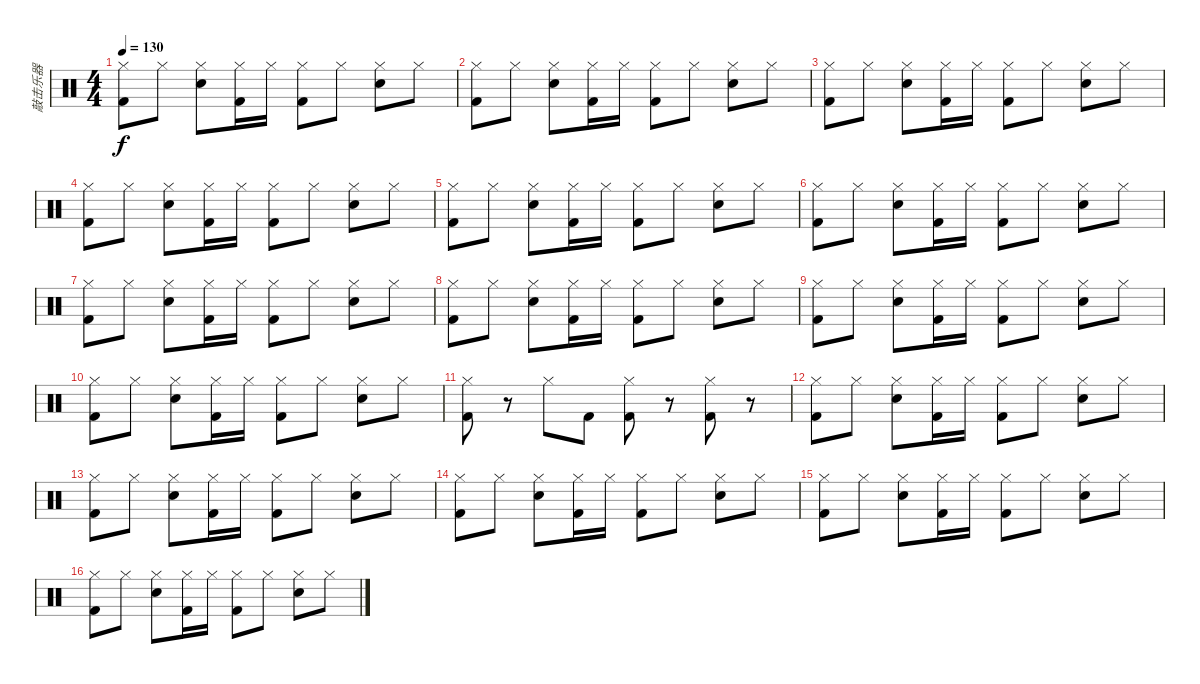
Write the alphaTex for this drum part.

\track ("敲击乐器" "敲击乐器") {instrument percussion}
\staff {score}
\articulation defaults
\ts (4 4)
\tempo 130
\clef neutral
\ks c
("Hi-Hat (closed)" "Kick (hit) 2").8{dy f} "Hi-Hat (closed)".8 ("Hi-Hat (closed)" "Snare (hit) 2").8 ("Hi-Hat (closed)" "Kick (hit) 2").16 "Hi-Hat (closed)".16 ("Hi-Hat (closed)" "Kick (hit) 2").8 "Hi-Hat (closed)".8 ("Hi-Hat (closed)" "Snare (hit) 2").8 "Hi-Hat (closed)".8 |
("Hi-Hat (closed)" "Kick (hit) 2").8 "Hi-Hat (closed)".8 ("Hi-Hat (closed)" "Snare (hit) 2").8 ("Hi-Hat (closed)" "Kick (hit) 2").16 "Hi-Hat (closed)".16 ("Hi-Hat (closed)" "Kick (hit) 2").8 "Hi-Hat (closed)".8 ("Hi-Hat (closed)" "Snare (hit) 2").8 "Hi-Hat (closed)".8 |
("Hi-Hat (closed)" "Kick (hit) 2").8 "Hi-Hat (closed)".8 ("Hi-Hat (closed)" "Snare (hit) 2").8 ("Hi-Hat (closed)" "Kick (hit) 2").16 "Hi-Hat (closed)".16 ("Hi-Hat (closed)" "Kick (hit) 2").8 "Hi-Hat (closed)".8 ("Hi-Hat (closed)" "Snare (hit) 2").8 "Hi-Hat (closed)".8 |
("Hi-Hat (closed)" "Kick (hit) 2").8 "Hi-Hat (closed)".8 ("Hi-Hat (closed)" "Snare (hit) 2").8 ("Hi-Hat (closed)" "Kick (hit) 2").16 "Hi-Hat (closed)".16 ("Hi-Hat (closed)" "Kick (hit) 2").8 "Hi-Hat (closed)".8 ("Hi-Hat (closed)" "Snare (hit) 2").8 "Hi-Hat (closed)".8 |
("Hi-Hat (closed)" "Kick (hit) 2").8 "Hi-Hat (closed)".8 ("Hi-Hat (closed)" "Snare (hit) 2").8 ("Hi-Hat (closed)" "Kick (hit) 2").16 "Hi-Hat (closed)".16 ("Hi-Hat (closed)" "Kick (hit) 2").8 "Hi-Hat (closed)".8 ("Hi-Hat (closed)" "Snare (hit) 2").8 "Hi-Hat (closed)".8 |
("Hi-Hat (closed)" "Kick (hit) 2").8 "Hi-Hat (closed)".8 ("Hi-Hat (closed)" "Snare (hit) 2").8 ("Hi-Hat (closed)" "Kick (hit) 2").16 "Hi-Hat (closed)".16 ("Hi-Hat (closed)" "Kick (hit) 2").8 "Hi-Hat (closed)".8 ("Hi-Hat (closed)" "Snare (hit) 2").8 "Hi-Hat (closed)".8 |
("Hi-Hat (closed)" "Kick (hit) 2").8 "Hi-Hat (closed)".8 ("Hi-Hat (closed)" "Snare (hit) 2").8 ("Hi-Hat (closed)" "Kick (hit) 2").16 "Hi-Hat (closed)".16 ("Hi-Hat (closed)" "Kick (hit) 2").8 "Hi-Hat (closed)".8 ("Hi-Hat (closed)" "Snare (hit) 2").8 "Hi-Hat (closed)".8 |
("Hi-Hat (closed)" "Kick (hit) 2").8 "Hi-Hat (closed)".8 ("Hi-Hat (closed)" "Snare (hit) 2").8 ("Hi-Hat (closed)" "Kick (hit) 2").16 "Hi-Hat (closed)".16 ("Hi-Hat (closed)" "Kick (hit) 2").8 "Hi-Hat (closed)".8 ("Hi-Hat (closed)" "Snare (hit) 2").8 "Hi-Hat (closed)".8 |
("Hi-Hat (closed)" "Kick (hit) 2").8 "Hi-Hat (closed)".8 ("Hi-Hat (closed)" "Snare (hit) 2").8 ("Hi-Hat (closed)" "Kick (hit) 2").16 "Hi-Hat (closed)".16 ("Hi-Hat (closed)" "Kick (hit) 2").8 "Hi-Hat (closed)".8 ("Hi-Hat (closed)" "Snare (hit) 2").8 "Hi-Hat (closed)".8 |
("Hi-Hat (closed)" "Kick (hit) 2").8 "Hi-Hat (closed)".8 ("Hi-Hat (closed)" "Snare (hit) 2").8 ("Hi-Hat (closed)" "Kick (hit) 2").16 "Hi-Hat (closed)".16 ("Hi-Hat (closed)" "Kick (hit) 2").8 "Hi-Hat (closed)".8 ("Hi-Hat (closed)" "Snare (hit) 2").8 "Hi-Hat (closed)".8 |
("Hi-Hat (closed)" "Kick (hit) 2").8 r.8 "Hi-Hat (closed)".8 "Kick (hit) 2".8 ("Hi-Hat (closed)" "Kick (hit) 2").8 r.8 ("Hi-Hat (closed)" "Kick (hit) 2").8 r.8 |
("Hi-Hat (closed)" "Kick (hit) 2").8 "Hi-Hat (closed)".8 ("Hi-Hat (closed)" "Snare (hit) 2").8 ("Hi-Hat (closed)" "Kick (hit) 2").16 "Hi-Hat (closed)".16 ("Hi-Hat (closed)" "Kick (hit) 2").8 "Hi-Hat (closed)".8 ("Hi-Hat (closed)" "Snare (hit) 2").8 "Hi-Hat (closed)".8 |
("Hi-Hat (closed)" "Kick (hit) 2").8 "Hi-Hat (closed)".8 ("Hi-Hat (closed)" "Snare (hit) 2").8 ("Hi-Hat (closed)" "Kick (hit) 2").16 "Hi-Hat (closed)".16 ("Hi-Hat (closed)" "Kick (hit) 2").8 "Hi-Hat (closed)".8 ("Hi-Hat (closed)" "Snare (hit) 2").8 "Hi-Hat (closed)".8 |
("Hi-Hat (closed)" "Kick (hit) 2").8 "Hi-Hat (closed)".8 ("Hi-Hat (closed)" "Snare (hit) 2").8 ("Hi-Hat (closed)" "Kick (hit) 2").16 "Hi-Hat (closed)".16 ("Hi-Hat (closed)" "Kick (hit) 2").8 "Hi-Hat (closed)".8 ("Hi-Hat (closed)" "Snare (hit) 2").8 "Hi-Hat (closed)".8 |
("Hi-Hat (closed)" "Kick (hit) 2").8 "Hi-Hat (closed)".8 ("Hi-Hat (closed)" "Snare (hit) 2").8 ("Hi-Hat (closed)" "Kick (hit) 2").16 "Hi-Hat (closed)".16 ("Hi-Hat (closed)" "Kick (hit) 2").8 "Hi-Hat (closed)".8 ("Hi-Hat (closed)" "Snare (hit) 2").8 "Hi-Hat (closed)".8 |
("Hi-Hat (closed)" "Kick (hit) 2").8 "Hi-Hat (closed)".8 ("Hi-Hat (closed)" "Snare (hit) 2").8 ("Hi-Hat (closed)" "Kick (hit) 2").16 "Hi-Hat (closed)".16 ("Hi-Hat (closed)" "Kick (hit) 2").8 "Hi-Hat (closed)".8 ("Hi-Hat (closed)" "Snare (hit) 2").8 "Hi-Hat (closed)".8
